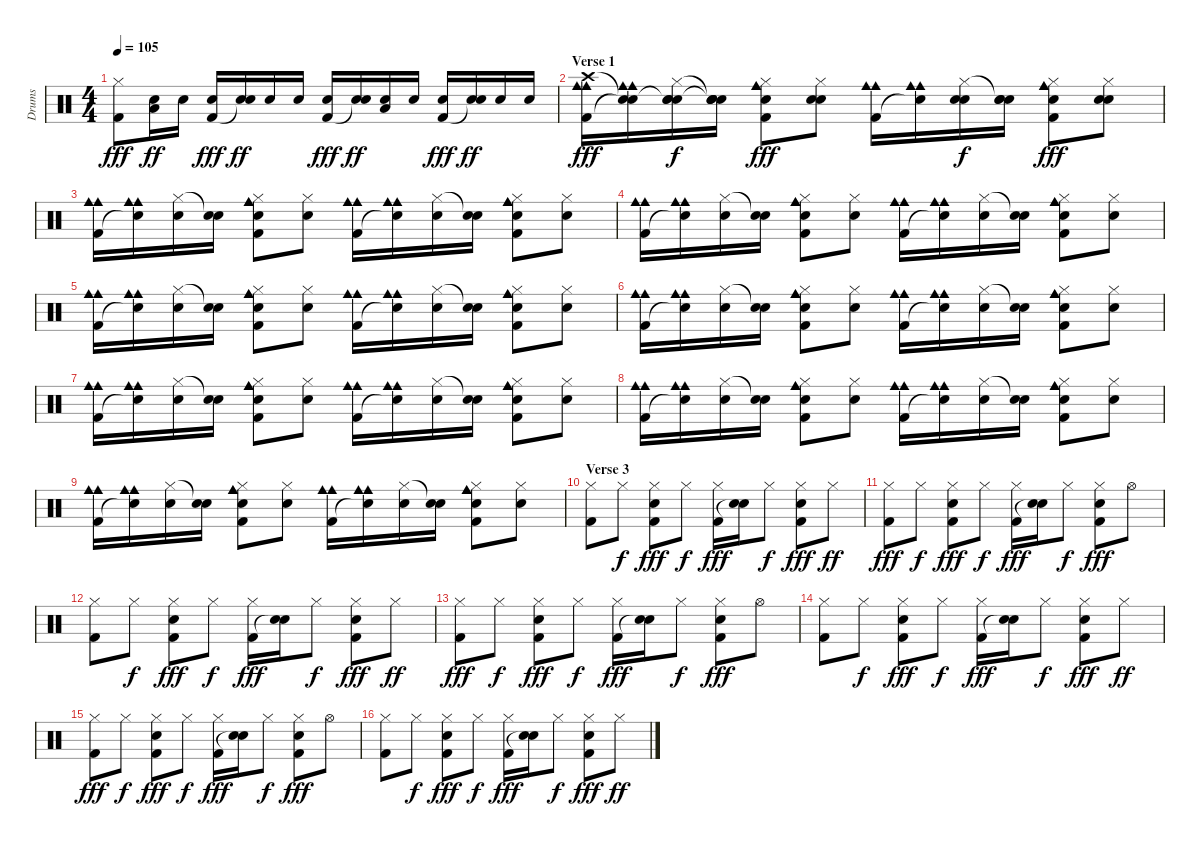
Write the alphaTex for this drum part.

\track ("Drums" "Drums") {instrument percussion}
\staff {score}
\articulation defaults
\ts (4 4)
\tempo 105
\clef neutral
\ks c
("Hi-Hat (closed)" "Kick (hit) 2").8{dy fff} ("Low Tom (hit)" "Electric Snare (hit)").16{dy ff} "Electric Snare (hit)".16 ("Electric Snare (hit)" "Kick (hit) 2").16{dy fff} ("Electric Snare (hit)" "Snare (hit)"{t}).16{dy ff} "Electric Snare (hit)".16 "Electric Snare (hit)".16 ("Electric Snare (hit)" "Kick (hit) 2").16{dy fff} ("Electric Snare (hit)" "Snare (hit)"{t}).16{dy ff} ("Low Tom (hit)" "Electric Snare (hit)").16 "Electric Snare (hit)".16 ("Electric Snare (hit)" "Kick (hit) 2").16{dy fff} ("Electric Snare (hit)" "Snare (hit)"{t}).16{dy ff} "Electric Snare (hit)".16 "Electric Snare (hit)".16 |
\section ("" "Verse 1")
("Crash high (hit)" "Cowbell medium (hit)" "Cowbell medium (hit)" "Kick (hit) 2").16{dy fff} ("Snare (hit)"{t} "Cowbell medium (hit)" "Cowbell medium (hit)" "Snare (hit)"{t}).16 ("Snare (hit)"{t} "Hi-Hat (closed)" "Hand Clap (hit)" "Hand Clap (hit)").16{dy f} ("Snare (hit)"{t} "Hand Clap (hit)"{t} "Hand Clap (hit)" "Hand Clap (hit)").16 ("Cowbell medium (hit)" "Cowbell medium (hit)" "Hi-Hat (closed)" "Electric Snare (hit)" "Kick (hit) 2").8{dy fff} ("Hi-Hat (closed)" "Hand Clap (hit)" "Hand Clap (hit)").8 ("Cowbell medium (hit)" "Cowbell medium (hit)" "Kick (hit) 2").16 ("Cowbell medium (hit)" "Cowbell medium (hit)" "Snare (hit)"{t}).16 ("Hi-Hat (closed)" "Hand Clap (hit)" "Hand Clap (hit)").16{dy f} ("Hand Clap (hit)"{t} "Hand Clap (hit)" "Hand Clap (hit)").16 ("Cowbell medium (hit)" "Cowbell medium (hit)" "Hi-Hat (closed)" "Electric Snare (hit)" "Kick (hit) 2").8{dy fff} ("Hi-Hat (closed)" "Hand Clap (hit)" "Hand Clap (hit)").8 |
("Cowbell medium (hit)" "Cowbell medium (hit)" "Kick (hit) 2").16 ("Cowbell medium (hit)" "Cowbell medium (hit)" "Snare (hit)"{t}).16 ("Hi-Hat (closed)" "Hand Clap (hit)").16 ("Hand Clap (hit)"{t} "Hand Clap (hit)").16 ("Cowbell medium (hit)" "Cowbell medium (hit)" "Hi-Hat (closed)" "Electric Snare (hit)" "Kick (hit) 2").8 ("Hi-Hat (closed)" "Hand Clap (hit)").8 ("Cowbell medium (hit)" "Cowbell medium (hit)" "Kick (hit) 2").16 ("Cowbell medium (hit)" "Cowbell medium (hit)" "Snare (hit)"{t}).16 ("Hi-Hat (closed)" "Hand Clap (hit)").16 ("Hand Clap (hit)"{t} "Hand Clap (hit)").16 ("Cowbell medium (hit)" "Cowbell medium (hit)" "Hi-Hat (closed)" "Electric Snare (hit)" "Kick (hit) 2").8 ("Hi-Hat (closed)" "Hand Clap (hit)").8 |
("Cowbell medium (hit)" "Cowbell medium (hit)" "Kick (hit) 2").16 ("Cowbell medium (hit)" "Cowbell medium (hit)" "Snare (hit)"{t}).16 ("Hi-Hat (closed)" "Hand Clap (hit)").16 ("Hand Clap (hit)"{t} "Hand Clap (hit)").16 ("Cowbell medium (hit)" "Cowbell medium (hit)" "Hi-Hat (closed)" "Electric Snare (hit)" "Kick (hit) 2").8 ("Hi-Hat (closed)" "Hand Clap (hit)").8 ("Cowbell medium (hit)" "Cowbell medium (hit)" "Kick (hit) 2").16 ("Cowbell medium (hit)" "Cowbell medium (hit)" "Snare (hit)"{t}).16 ("Hi-Hat (closed)" "Hand Clap (hit)").16 ("Hand Clap (hit)"{t} "Hand Clap (hit)").16 ("Cowbell medium (hit)" "Cowbell medium (hit)" "Hi-Hat (closed)" "Electric Snare (hit)" "Kick (hit) 2").8 ("Hi-Hat (closed)" "Hand Clap (hit)").8 |
("Cowbell medium (hit)" "Cowbell medium (hit)" "Kick (hit) 2").16 ("Cowbell medium (hit)" "Cowbell medium (hit)" "Snare (hit)"{t}).16 ("Hi-Hat (closed)" "Hand Clap (hit)").16 ("Hand Clap (hit)"{t} "Hand Clap (hit)").16 ("Cowbell medium (hit)" "Cowbell medium (hit)" "Hi-Hat (closed)" "Electric Snare (hit)" "Kick (hit) 2").8 ("Hi-Hat (closed)" "Hand Clap (hit)").8 ("Cowbell medium (hit)" "Cowbell medium (hit)" "Kick (hit) 2").16 ("Cowbell medium (hit)" "Cowbell medium (hit)" "Snare (hit)"{t}).16 ("Hi-Hat (closed)" "Hand Clap (hit)").16 ("Hand Clap (hit)"{t} "Hand Clap (hit)").16 ("Cowbell medium (hit)" "Cowbell medium (hit)" "Hi-Hat (closed)" "Electric Snare (hit)" "Kick (hit) 2").8 ("Hi-Hat (closed)" "Hand Clap (hit)").8 |
("Cowbell medium (hit)" "Cowbell medium (hit)" "Kick (hit) 2").16 ("Cowbell medium (hit)" "Cowbell medium (hit)" "Snare (hit)"{t}).16 ("Hi-Hat (closed)" "Hand Clap (hit)").16 ("Hand Clap (hit)"{t} "Hand Clap (hit)").16 ("Cowbell medium (hit)" "Cowbell medium (hit)" "Hi-Hat (closed)" "Electric Snare (hit)" "Kick (hit) 2").8 ("Hi-Hat (closed)" "Hand Clap (hit)").8 ("Cowbell medium (hit)" "Cowbell medium (hit)" "Kick (hit) 2").16 ("Cowbell medium (hit)" "Cowbell medium (hit)" "Snare (hit)"{t}).16 ("Hi-Hat (closed)" "Hand Clap (hit)").16 ("Hand Clap (hit)"{t} "Hand Clap (hit)").16 ("Cowbell medium (hit)" "Cowbell medium (hit)" "Hi-Hat (closed)" "Electric Snare (hit)" "Kick (hit) 2").8 ("Hi-Hat (closed)" "Hand Clap (hit)").8 |
("Cowbell medium (hit)" "Cowbell medium (hit)" "Kick (hit) 2").16 ("Cowbell medium (hit)" "Cowbell medium (hit)" "Snare (hit)"{t}).16 ("Hi-Hat (closed)" "Hand Clap (hit)").16 ("Hand Clap (hit)"{t} "Hand Clap (hit)").16 ("Cowbell medium (hit)" "Cowbell medium (hit)" "Hi-Hat (closed)" "Electric Snare (hit)" "Kick (hit) 2").8 ("Hi-Hat (closed)" "Hand Clap (hit)").8 ("Cowbell medium (hit)" "Cowbell medium (hit)" "Kick (hit) 2").16 ("Cowbell medium (hit)" "Cowbell medium (hit)" "Snare (hit)"{t}).16 ("Hi-Hat (closed)" "Hand Clap (hit)").16 ("Hand Clap (hit)"{t} "Hand Clap (hit)").16 ("Cowbell medium (hit)" "Cowbell medium (hit)" "Hi-Hat (closed)" "Electric Snare (hit)" "Kick (hit) 2").8 ("Hi-Hat (closed)" "Hand Clap (hit)").8 |
("Cowbell medium (hit)" "Cowbell medium (hit)" "Kick (hit) 2").16 ("Cowbell medium (hit)" "Cowbell medium (hit)" "Snare (hit)"{t}).16 ("Hi-Hat (closed)" "Hand Clap (hit)").16 ("Hand Clap (hit)"{t} "Hand Clap (hit)").16 ("Cowbell medium (hit)" "Cowbell medium (hit)" "Hi-Hat (closed)" "Electric Snare (hit)" "Kick (hit) 2").8 ("Hi-Hat (closed)" "Hand Clap (hit)").8 ("Cowbell medium (hit)" "Cowbell medium (hit)" "Kick (hit) 2").16 ("Cowbell medium (hit)" "Cowbell medium (hit)" "Snare (hit)"{t}).16 ("Hi-Hat (closed)" "Hand Clap (hit)").16 ("Hand Clap (hit)"{t} "Hand Clap (hit)").16 ("Cowbell medium (hit)" "Cowbell medium (hit)" "Hi-Hat (closed)" "Electric Snare (hit)" "Kick (hit) 2").8 ("Hi-Hat (closed)" "Hand Clap (hit)").8 |
("Cowbell medium (hit)" "Cowbell medium (hit)" "Kick (hit) 2").16 ("Cowbell medium (hit)" "Cowbell medium (hit)" "Snare (hit)"{t}).16 ("Hi-Hat (closed)" "Hand Clap (hit)").16 ("Hand Clap (hit)"{t} "Hand Clap (hit)").16 ("Cowbell medium (hit)" "Cowbell medium (hit)" "Hi-Hat (closed)" "Electric Snare (hit)" "Kick (hit) 2").8 ("Hi-Hat (closed)" "Hand Clap (hit)").8 ("Cowbell medium (hit)" "Cowbell medium (hit)" "Kick (hit) 2").16 ("Cowbell medium (hit)" "Cowbell medium (hit)" "Snare (hit)"{t}).16 ("Hi-Hat (closed)" "Hand Clap (hit)").16 ("Hand Clap (hit)"{t} "Hand Clap (hit)").16 ("Cowbell medium (hit)" "Cowbell medium (hit)" "Hi-Hat (closed)" "Electric Snare (hit)" "Kick (hit) 2").8 ("Hi-Hat (closed)" "Hand Clap (hit)").8 |
\section ("" "Verse 3")
("Hi-Hat (closed)" "Kick (hit) 2").8 "Hi-Hat (closed)".8{dy f} ("Hi-Hat (closed)" "Electric Snare (hit)" "Kick (hit) 2").8{dy fff} "Hi-Hat (closed)".8{dy f} ("Hi-Hat (closed)" "Kick (hit) 2").16{dy fff} ("Electric Snare (hit)" "Snare (hit)"{t}).16 "Hi-Hat (closed)".8{dy f} ("Hi-Hat (closed)" "Electric Snare (hit)" "Kick (hit) 2").8{dy fff} "Hi-Hat (closed)".8{dy ff} |
("Hi-Hat (closed)" "Kick (hit) 2").8{dy fff} "Hi-Hat (closed)".8{dy f} ("Hi-Hat (closed)" "Electric Snare (hit)" "Kick (hit) 2").8{dy fff} "Hi-Hat (closed)".8{dy f} ("Hi-Hat (closed)" "Kick (hit) 2").16{dy fff} ("Electric Snare (hit)" "Snare (hit)"{t}).16 "Hi-Hat (closed)".8{dy f} ("Hi-Hat (closed)" "Electric Snare (hit)" "Kick (hit) 2").8{dy fff} "Hi-Hat (open)".8 |
("Hi-Hat (closed)" "Kick (hit) 2").8 "Hi-Hat (closed)".8{dy f} ("Hi-Hat (closed)" "Electric Snare (hit)" "Kick (hit) 2").8{dy fff} "Hi-Hat (closed)".8{dy f} ("Hi-Hat (closed)" "Kick (hit) 2").16{dy fff} ("Electric Snare (hit)" "Snare (hit)"{t}).16 "Hi-Hat (closed)".8{dy f} ("Hi-Hat (closed)" "Electric Snare (hit)" "Kick (hit) 2").8{dy fff} "Hi-Hat (closed)".8{dy ff} |
("Hi-Hat (closed)" "Kick (hit) 2").8{dy fff} "Hi-Hat (closed)".8{dy f} ("Hi-Hat (closed)" "Electric Snare (hit)" "Kick (hit) 2").8{dy fff} "Hi-Hat (closed)".8{dy f} ("Hi-Hat (closed)" "Kick (hit) 2").16{dy fff} ("Electric Snare (hit)" "Snare (hit)"{t}).16 "Hi-Hat (closed)".8{dy f} ("Hi-Hat (closed)" "Electric Snare (hit)" "Kick (hit) 2").8{dy fff} "Hi-Hat (open)".8 |
("Hi-Hat (closed)" "Kick (hit) 2").8 "Hi-Hat (closed)".8{dy f} ("Hi-Hat (closed)" "Electric Snare (hit)" "Kick (hit) 2").8{dy fff} "Hi-Hat (closed)".8{dy f} ("Hi-Hat (closed)" "Kick (hit) 2").16{dy fff} ("Electric Snare (hit)" "Snare (hit)"{t}).16 "Hi-Hat (closed)".8{dy f} ("Hi-Hat (closed)" "Electric Snare (hit)" "Kick (hit) 2").8{dy fff} "Hi-Hat (closed)".8{dy ff} |
("Hi-Hat (closed)" "Kick (hit) 2").8{dy fff} "Hi-Hat (closed)".8{dy f} ("Hi-Hat (closed)" "Electric Snare (hit)" "Kick (hit) 2").8{dy fff} "Hi-Hat (closed)".8{dy f} ("Hi-Hat (closed)" "Kick (hit) 2").16{dy fff} ("Electric Snare (hit)" "Snare (hit)"{t}).16 "Hi-Hat (closed)".8{dy f} ("Hi-Hat (closed)" "Electric Snare (hit)" "Kick (hit) 2").8{dy fff} "Hi-Hat (open)".8 |
("Hi-Hat (closed)" "Kick (hit) 2").8 "Hi-Hat (closed)".8{dy f} ("Hi-Hat (closed)" "Electric Snare (hit)" "Kick (hit) 2").8{dy fff} "Hi-Hat (closed)".8{dy f} ("Hi-Hat (closed)" "Kick (hit) 2").16{dy fff} ("Electric Snare (hit)" "Snare (hit)"{t}).16 "Hi-Hat (closed)".8{dy f} ("Hi-Hat (closed)" "Electric Snare (hit)" "Kick (hit) 2").8{dy fff} "Hi-Hat (closed)".8{dy ff}
